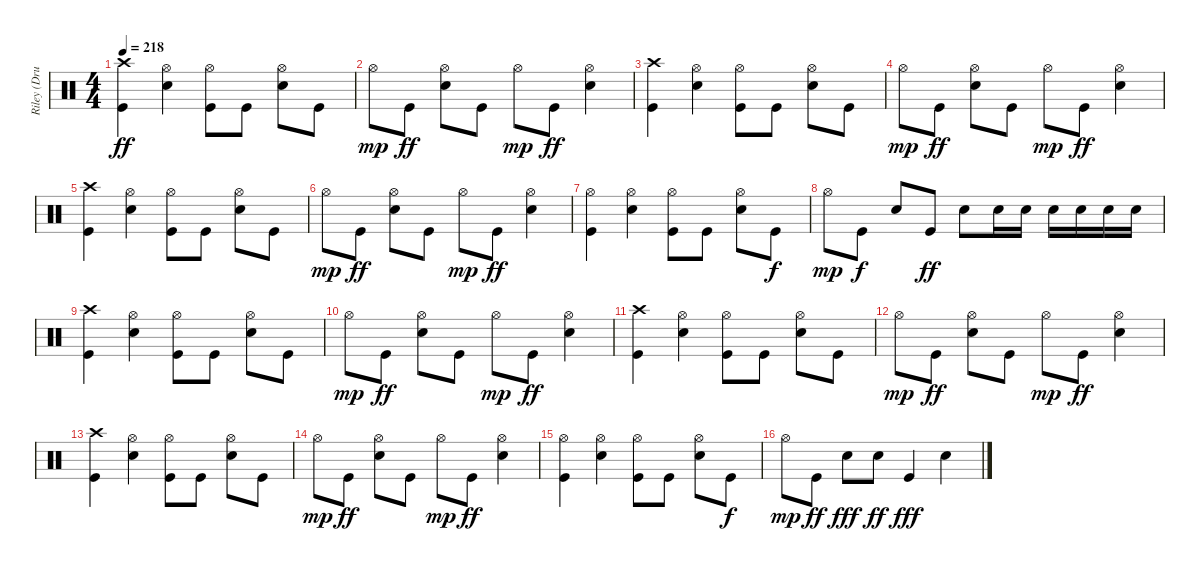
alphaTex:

\track ("Riley (Drums)" "Riley (Dru") {instrument percussion}
\staff {score}
\articulation defaults
\ts (4 4)
\tempo 218
\clef neutral
\ks c
("Crash high (hit)" "Kick (hit)").4{dy ff} ("Hi-Hat (open)" "Electric Snare (hit)").4 ("Hi-Hat (open)" "Kick (hit)").8 "Kick (hit)".8 ("Hi-Hat (open)" "Electric Snare (hit)").8 "Kick (hit)".8 |
"Hi-Hat (open)".8{dy mp} "Kick (hit)".8{dy ff} ("Hi-Hat (open)" "Electric Snare (hit)").8 "Kick (hit)".8 "Hi-Hat (open)".8{dy mp} "Kick (hit)".8{dy ff} ("Hi-Hat (open)" "Electric Snare (hit)").4 |
("Crash high (hit)" "Kick (hit)").4 ("Hi-Hat (open)" "Electric Snare (hit)").4 ("Hi-Hat (open)" "Kick (hit)").8 "Kick (hit)".8 ("Hi-Hat (open)" "Electric Snare (hit)").8 "Kick (hit)".8 |
"Hi-Hat (open)".8{dy mp} "Kick (hit)".8{dy ff} ("Hi-Hat (open)" "Electric Snare (hit)").8 "Kick (hit)".8 "Hi-Hat (open)".8{dy mp} "Kick (hit)".8{dy ff} ("Hi-Hat (open)" "Electric Snare (hit)").4 |
("Crash high (hit)" "Kick (hit)").4 ("Hi-Hat (open)" "Electric Snare (hit)").4 ("Hi-Hat (open)" "Kick (hit)").8 "Kick (hit)".8 ("Hi-Hat (open)" "Electric Snare (hit)").8 "Kick (hit)".8 |
"Hi-Hat (open)".8{dy mp} "Kick (hit)".8{dy ff} ("Hi-Hat (open)" "Electric Snare (hit)").8 "Kick (hit)".8 "Hi-Hat (open)".8{dy mp} "Kick (hit)".8{dy ff} ("Hi-Hat (open)" "Electric Snare (hit)").4 |
("Hi-Hat (open)" "Kick (hit)").4 ("Hi-Hat (open)" "Electric Snare (hit)").4 ("Hi-Hat (open)" "Kick (hit)").8 "Kick (hit)".8 ("Hi-Hat (open)" "Electric Snare (hit)").8 "Kick (hit)".8{dy f} |
"Hi-Hat (open)".8{dy mp} "Kick (hit)".8{dy f} "Electric Snare (hit)".8 "Kick (hit)".8{dy ff} "Electric Snare (hit)".8 "Electric Snare (hit)".16 "Electric Snare (hit)".16 "Electric Snare (hit)".16 "Electric Snare (hit)".16 "Electric Snare (hit)".16 "Electric Snare (hit)".16 |
("Crash high (hit)" "Kick (hit)").4 ("Hi-Hat (open)" "Electric Snare (hit)").4 ("Hi-Hat (open)" "Kick (hit)").8 "Kick (hit)".8 ("Hi-Hat (open)" "Electric Snare (hit)").8 "Kick (hit)".8 |
"Hi-Hat (open)".8{dy mp} "Kick (hit)".8{dy ff} ("Hi-Hat (open)" "Electric Snare (hit)").8 "Kick (hit)".8 "Hi-Hat (open)".8{dy mp} "Kick (hit)".8{dy ff} ("Hi-Hat (open)" "Electric Snare (hit)").4 |
("Crash high (hit)" "Kick (hit)").4 ("Hi-Hat (open)" "Electric Snare (hit)").4 ("Hi-Hat (open)" "Kick (hit)").8 "Kick (hit)".8 ("Hi-Hat (open)" "Electric Snare (hit)").8 "Kick (hit)".8 |
"Hi-Hat (open)".8{dy mp} "Kick (hit)".8{dy ff} ("Hi-Hat (open)" "Electric Snare (hit)").8 "Kick (hit)".8 "Hi-Hat (open)".8{dy mp} "Kick (hit)".8{dy ff} ("Hi-Hat (open)" "Electric Snare (hit)").4 |
("Crash high (hit)" "Kick (hit)").4 ("Hi-Hat (open)" "Electric Snare (hit)").4 ("Hi-Hat (open)" "Kick (hit)").8 "Kick (hit)".8 ("Hi-Hat (open)" "Electric Snare (hit)").8 "Kick (hit)".8 |
"Hi-Hat (open)".8{dy mp} "Kick (hit)".8{dy ff} ("Hi-Hat (open)" "Electric Snare (hit)").8 "Kick (hit)".8 "Hi-Hat (open)".8{dy mp} "Kick (hit)".8{dy ff} ("Hi-Hat (open)" "Electric Snare (hit)").4 |
("Hi-Hat (open)" "Kick (hit)").4 ("Hi-Hat (open)" "Electric Snare (hit)").4 ("Hi-Hat (open)" "Kick (hit)").8 "Kick (hit)".8 ("Hi-Hat (open)" "Electric Snare (hit)").8 "Kick (hit)".8{dy f} |
"Hi-Hat (open)".8{dy mp} "Kick (hit)".8{dy ff} "Electric Snare (hit)".8{dy fff} "Electric Snare (hit)".8{dy ff} "Kick (hit)".4{dy fff} "Electric Snare (hit)".4
